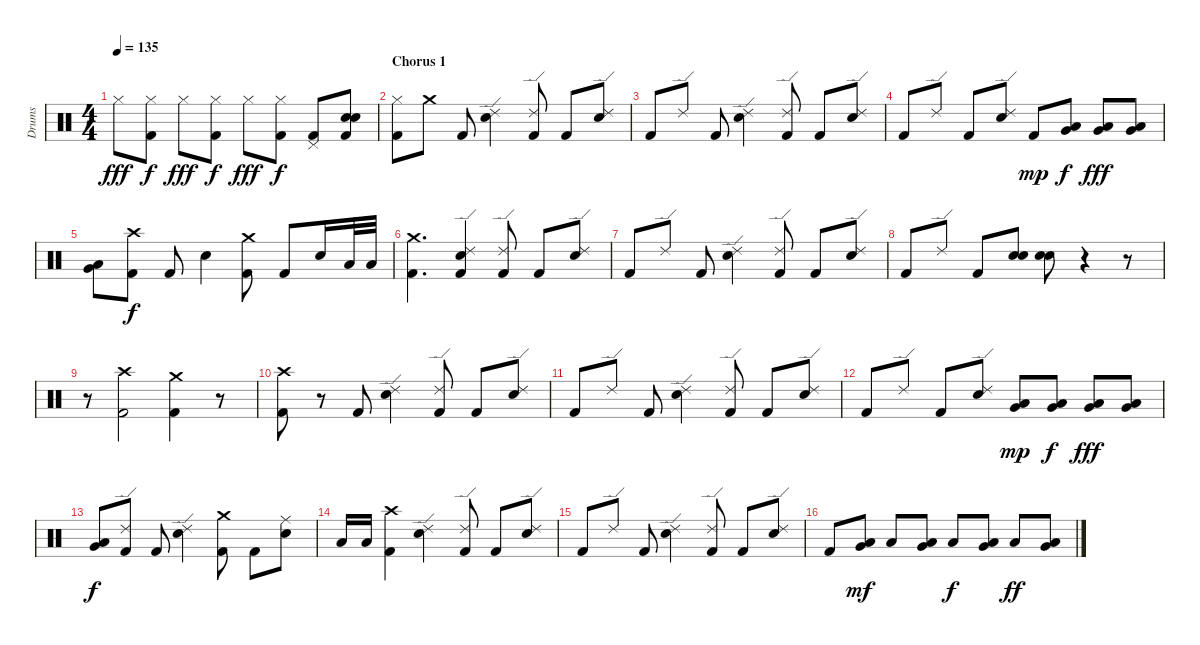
\track ("Drums" "Drums") {instrument percussion}
\staff {score}
\articulation defaults
\ts (4 4)
\tempo 135
\clef neutral
\ks c "Hi-Hat (closed)".8{dy fff}
("Hi-Hat (closed)" "Kick (hit) 2").8{dy f} "Hi-Hat (closed)".8{dy fff} ("Hi-Hat (closed)" "Kick (hit) 2").8{dy f} "Hi-Hat (closed)".8{dy fff} ("Hi-Hat (closed)" "Kick (hit) 2").8{dy f} ("Pedal Hi-Hat (hit)" "Kick (hit) 2").8 ("Snare (hit) 2" "Snare (hit) 2" "Kick (hit) 2").8 |
\section ("" "Chorus 1")
("Hi-Hat (closed)" "Kick (hit) 2").8 "Crash medium (hit)".8 "Kick (hit) 2".8 ("Ride (edge) 2" "Snare (hit) 2").4 ("Ride (edge) 2" "Kick (hit) 2").8 "Kick (hit) 2".8 ("Ride (edge) 2" "Snare (hit) 2").8 |
"Kick (hit) 2".8 "Ride (edge) 2".8 "Kick (hit) 2".8 ("Ride (edge) 2" "Snare (hit) 2").4 ("Ride (edge) 2" "Kick (hit) 2").8 "Kick (hit) 2".8 ("Ride (edge) 2" "Snare (hit) 2").8 |
"Kick (hit) 2".8 "Ride (edge) 2".8 "Kick (hit) 2".8 ("Ride (edge) 2" "Snare (hit) 2").8 "Kick (hit) 2".8{dy mp} ("Low Floor Tom (hit)" "Very Low Tom (hit)").8{dy f} ("Low Floor Tom (hit)" "Very Low Tom (hit)").8{dy fff} ("Low Floor Tom (hit)" "Very Low Tom (hit)").8 |
("Low Floor Tom (hit)" "Very Low Tom (hit)").8 ("Crash high (hit)" "Kick (hit) 2").8{dy f} "Kick (hit) 2".8 "Snare (hit) 2".4 ("Crash medium (hit)" "Kick (hit) 2").8 "Kick (hit) 2".8 "Snare (hit) 2".16 "Low Floor Tom (hit)".32 "Low Floor Tom (hit)".32 |
("Crash medium (hit)" "Kick (hit) 2").4{d} ("Ride (edge) 2" "Snare (hit) 2" "Kick (hit) 2").4 ("Ride (edge) 2" "Kick (hit) 2").8 "Kick (hit) 2".8 ("Ride (edge) 2" "Snare (hit) 2").8 |
"Kick (hit) 2".8 "Ride (edge) 2".8 "Kick (hit) 2".8 ("Ride (edge) 2" "Snare (hit) 2").4 ("Ride (edge) 2" "Kick (hit) 2").8 "Kick (hit) 2".8 ("Ride (edge) 2" "Snare (hit) 2").8 |
"Kick (hit) 2".8 "Ride (edge) 2".8 "Kick (hit) 2".8 ("Snare (hit) 2" "Snare (hit) 2").8 ("Snare (hit) 2" "Snare (hit) 2").8 r.4 r.8 |
r.8 ("Crash high (hit)" "Kick (hit) 2").2 ("Crash medium (hit)" "Kick (hit) 2").4 r.8 |
("Crash high (hit)" "Kick (hit) 2").8 r.8 "Kick (hit) 2".8 ("Ride (edge) 2" "Snare (hit) 2").4 ("Ride (edge) 2" "Kick (hit) 2").8 "Kick (hit) 2".8 ("Ride (edge) 2" "Snare (hit) 2").8 |
"Kick (hit) 2".8 "Ride (edge) 2".8 "Kick (hit) 2".8 ("Ride (edge) 2" "Snare (hit) 2").4 ("Ride (edge) 2" "Kick (hit) 2").8 "Kick (hit) 2".8 ("Ride (edge) 2" "Snare (hit) 2").8 |
"Kick (hit) 2".8 "Ride (edge) 2".8 "Kick (hit) 2".8 ("Ride (edge) 2" "Snare (hit) 2").8 ("Low Floor Tom (hit)" "Very Low Tom (hit)").8{dy mp} ("Low Floor Tom (hit)" "Very Low Tom (hit)").8{dy f} ("Low Floor Tom (hit)" "Very Low Tom (hit)").8{dy fff} ("Low Floor Tom (hit)" "Very Low Tom (hit)").8 |
("Low Floor Tom (hit)" "Very Low Tom (hit)").8{dy f} ("Ride (edge) 2" "Kick (hit) 2").8 "Kick (hit) 2".8 ("Ride (edge) 2" "Snare (hit) 2").4 ("Crash medium (hit)" "Kick (hit) 2").8 "Kick (hit) 2".8 ("Ride (middle)" "Snare (hit) 2").8 |
"Low Floor Tom (hit)".16 "Low Floor Tom (hit)".16 ("Crash high (hit)" "Kick (hit) 2").4 ("Ride (edge) 2" "Snare (hit) 2").4 ("Ride (edge) 2" "Kick (hit) 2").8 "Kick (hit) 2".8 ("Ride (edge) 2" "Snare (hit) 2").8 |
"Kick (hit) 2".8 "Ride (edge) 2".8 "Kick (hit) 2".8 ("Ride (edge) 2" "Snare (hit) 2").4 ("Ride (edge) 2" "Kick (hit) 2").8 "Kick (hit) 2".8 ("Ride (edge) 2" "Snare (hit) 2").8 |
"Kick (hit) 2".8 ("Low Floor Tom (hit)" "Very Low Tom (hit)").8{dy mf} "Low Floor Tom (hit)".8 ("Low Floor Tom (hit)" "Very Low Tom (hit)").8 "Low Floor Tom (hit)".8{dy f} ("Low Floor Tom (hit)" "Very Low Tom (hit)").8 "Low Floor Tom (hit)".8{dy ff} ("Low Floor Tom (hit)" "Very Low Tom (hit)").8
